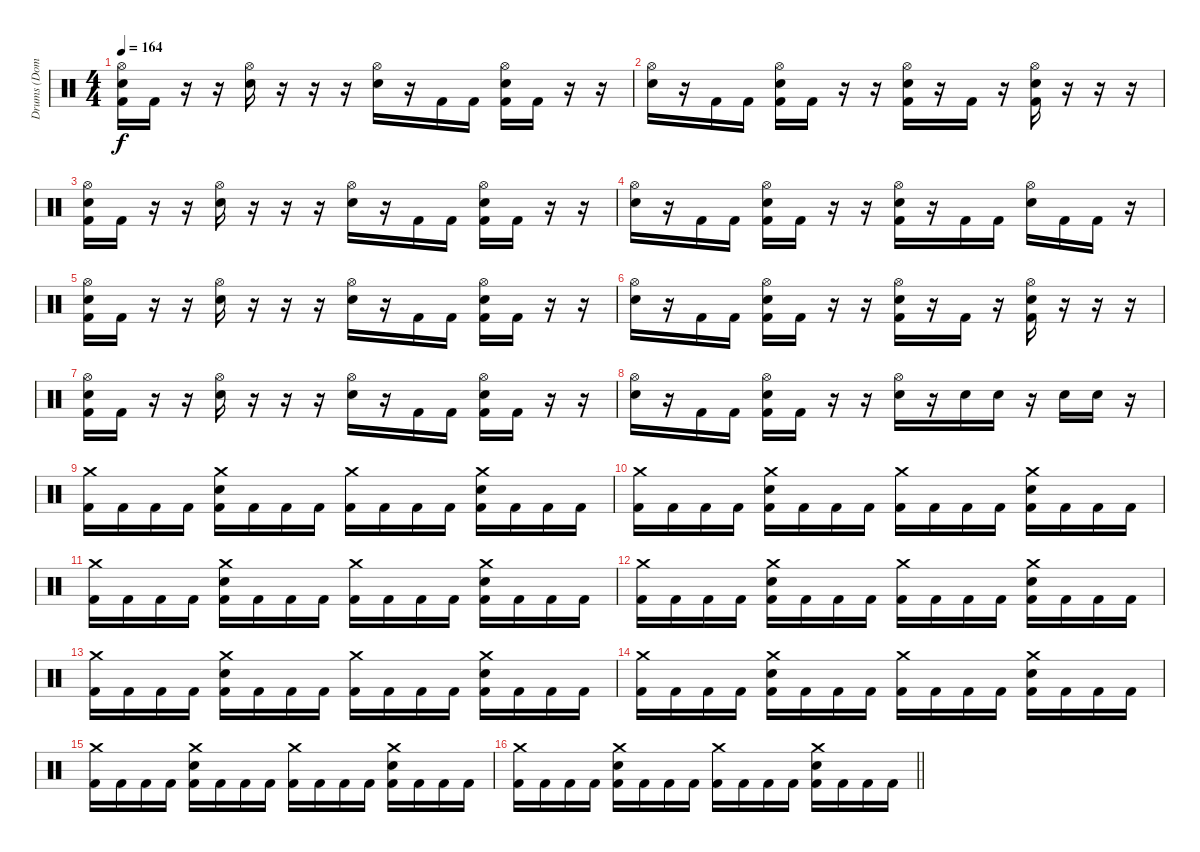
\track ("Drums (Dominik)" "Drums (Dom") {instrument percussion}
\staff {score}
\articulation defaults
\ts (4 4)
\tempo 164
\clef neutral
\ks c
("Hi-Hat (open)" "Electric Snare (hit)" "Kick (hit) 2").16{dy f} "Kick (hit) 2".16 r.16 r.16 ("Hi-Hat (open)" "Electric Snare (hit)").16 r.16 r.16 r.16 ("Hi-Hat (open)" "Electric Snare (hit)").16 r.16 "Kick (hit) 2".16 "Kick (hit) 2".16 ("Hi-Hat (open)" "Electric Snare (hit)" "Kick (hit) 2").16 "Kick (hit) 2".16 r.16 r.16 |
("Hi-Hat (open)" "Electric Snare (hit)").16 r.16 "Kick (hit) 2".16 "Kick (hit) 2".16 ("Hi-Hat (open)" "Electric Snare (hit)" "Kick (hit) 2").16 "Kick (hit) 2".16 r.16 r.16 ("Hi-Hat (open)" "Electric Snare (hit)" "Kick (hit) 2").16 r.16 "Kick (hit) 2".16 r.16 ("Hi-Hat (open)" "Electric Snare (hit)" "Kick (hit) 2").16 r.16 r.16 r.16 |
("Hi-Hat (open)" "Electric Snare (hit)" "Kick (hit) 2").16 "Kick (hit) 2".16 r.16 r.16 ("Hi-Hat (open)" "Electric Snare (hit)").16 r.16 r.16 r.16 ("Hi-Hat (open)" "Electric Snare (hit)").16 r.16 "Kick (hit) 2".16 "Kick (hit) 2".16 ("Hi-Hat (open)" "Electric Snare (hit)" "Kick (hit) 2").16 "Kick (hit) 2".16 r.16 r.16 |
("Hi-Hat (open)" "Electric Snare (hit)").16 r.16 "Kick (hit) 2".16 "Kick (hit) 2".16 ("Hi-Hat (open)" "Electric Snare (hit)" "Kick (hit) 2").16 "Kick (hit) 2".16 r.16 r.16 ("Hi-Hat (open)" "Electric Snare (hit)" "Kick (hit) 2").16 r.16 "Kick (hit) 2".16 "Kick (hit) 2".16 ("Hi-Hat (open)" "Electric Snare (hit)").16 "Kick (hit) 2".16 "Kick (hit) 2".16 r.16 |
("Hi-Hat (open)" "Electric Snare (hit)" "Kick (hit) 2").16 "Kick (hit) 2".16 r.16 r.16 ("Hi-Hat (open)" "Electric Snare (hit)").16 r.16 r.16 r.16 ("Hi-Hat (open)" "Electric Snare (hit)").16 r.16 "Kick (hit) 2".16 "Kick (hit) 2".16 ("Hi-Hat (open)" "Electric Snare (hit)" "Kick (hit) 2").16 "Kick (hit) 2".16 r.16 r.16 |
("Hi-Hat (open)" "Electric Snare (hit)").16 r.16 "Kick (hit) 2".16 "Kick (hit) 2".16 ("Hi-Hat (open)" "Electric Snare (hit)" "Kick (hit) 2").16 "Kick (hit) 2".16 r.16 r.16 ("Hi-Hat (open)" "Electric Snare (hit)" "Kick (hit) 2").16 r.16 "Kick (hit) 2".16 r.16 ("Hi-Hat (open)" "Electric Snare (hit)" "Kick (hit) 2").16 r.16 r.16 r.16 |
("Hi-Hat (open)" "Electric Snare (hit)" "Kick (hit) 2").16 "Kick (hit) 2".16 r.16 r.16 ("Hi-Hat (open)" "Electric Snare (hit)").16 r.16 r.16 r.16 ("Hi-Hat (open)" "Electric Snare (hit)").16 r.16 "Kick (hit) 2".16 "Kick (hit) 2".16 ("Hi-Hat (open)" "Electric Snare (hit)" "Kick (hit) 2").16 "Kick (hit) 2".16 r.16 r.16 |
("Hi-Hat (open)" "Electric Snare (hit)").16 r.16 "Kick (hit) 2".16 "Kick (hit) 2".16 ("Hi-Hat (open)" "Electric Snare (hit)" "Kick (hit) 2").16 "Kick (hit) 2".16 r.16 r.16 ("Hi-Hat (open)" "Electric Snare (hit)").16 r.16 "Electric Snare (hit)".16 "Electric Snare (hit)".16 r.16 "Electric Snare (hit)".16 "Electric Snare (hit)".16 r.16 |
("Crash medium (hit)" "Kick (hit) 2").16 "Kick (hit) 2".16 "Kick (hit) 2".16 "Kick (hit) 2".16 ("Crash medium (hit)" "Electric Snare (hit)" "Kick (hit) 2").16 "Kick (hit) 2".16 "Kick (hit) 2".16 "Kick (hit) 2".16 ("Crash medium (hit)" "Kick (hit) 2").16 "Kick (hit) 2".16 "Kick (hit) 2".16 "Kick (hit) 2".16 ("Crash medium (hit)" "Electric Snare (hit)" "Kick (hit) 2").16 "Kick (hit) 2".16 "Kick (hit) 2".16 "Kick (hit) 2".16 |
("Crash medium (hit)" "Kick (hit) 2").16 "Kick (hit) 2".16 "Kick (hit) 2".16 "Kick (hit) 2".16 ("Crash medium (hit)" "Electric Snare (hit)" "Kick (hit) 2").16 "Kick (hit) 2".16 "Kick (hit) 2".16 "Kick (hit) 2".16 ("Crash medium (hit)" "Kick (hit) 2").16 "Kick (hit) 2".16 "Kick (hit) 2".16 "Kick (hit) 2".16 ("Crash medium (hit)" "Electric Snare (hit)" "Kick (hit) 2").16 "Kick (hit) 2".16 "Kick (hit) 2".16 "Kick (hit) 2".16 |
("Crash medium (hit)" "Kick (hit) 2").16 "Kick (hit) 2".16 "Kick (hit) 2".16 "Kick (hit) 2".16 ("Crash medium (hit)" "Electric Snare (hit)" "Kick (hit) 2").16 "Kick (hit) 2".16 "Kick (hit) 2".16 "Kick (hit) 2".16 ("Crash medium (hit)" "Kick (hit) 2").16 "Kick (hit) 2".16 "Kick (hit) 2".16 "Kick (hit) 2".16 ("Crash medium (hit)" "Electric Snare (hit)" "Kick (hit) 2").16 "Kick (hit) 2".16 "Kick (hit) 2".16 "Kick (hit) 2".16 |
("Crash medium (hit)" "Kick (hit) 2").16 "Kick (hit) 2".16 "Kick (hit) 2".16 "Kick (hit) 2".16 ("Crash medium (hit)" "Electric Snare (hit)" "Kick (hit) 2").16 "Kick (hit) 2".16 "Kick (hit) 2".16 "Kick (hit) 2".16 ("Crash medium (hit)" "Kick (hit) 2").16 "Kick (hit) 2".16 "Kick (hit) 2".16 "Kick (hit) 2".16 ("Crash medium (hit)" "Electric Snare (hit)" "Kick (hit) 2").16 "Kick (hit) 2".16 "Kick (hit) 2".16 "Kick (hit) 2".16 |
("Crash medium (hit)" "Kick (hit) 2").16 "Kick (hit) 2".16 "Kick (hit) 2".16 "Kick (hit) 2".16 ("Crash medium (hit)" "Electric Snare (hit)" "Kick (hit) 2").16 "Kick (hit) 2".16 "Kick (hit) 2".16 "Kick (hit) 2".16 ("Crash medium (hit)" "Kick (hit) 2").16 "Kick (hit) 2".16 "Kick (hit) 2".16 "Kick (hit) 2".16 ("Crash medium (hit)" "Electric Snare (hit)" "Kick (hit) 2").16 "Kick (hit) 2".16 "Kick (hit) 2".16 "Kick (hit) 2".16 |
("Crash medium (hit)" "Kick (hit) 2").16 "Kick (hit) 2".16 "Kick (hit) 2".16 "Kick (hit) 2".16 ("Crash medium (hit)" "Electric Snare (hit)" "Kick (hit) 2").16 "Kick (hit) 2".16 "Kick (hit) 2".16 "Kick (hit) 2".16 ("Crash medium (hit)" "Kick (hit) 2").16 "Kick (hit) 2".16 "Kick (hit) 2".16 "Kick (hit) 2".16 ("Crash medium (hit)" "Electric Snare (hit)" "Kick (hit) 2").16 "Kick (hit) 2".16 "Kick (hit) 2".16 "Kick (hit) 2".16 |
("Crash medium (hit)" "Kick (hit) 2").16 "Kick (hit) 2".16 "Kick (hit) 2".16 "Kick (hit) 2".16 ("Crash medium (hit)" "Electric Snare (hit)" "Kick (hit) 2").16 "Kick (hit) 2".16 "Kick (hit) 2".16 "Kick (hit) 2".16 ("Crash medium (hit)" "Kick (hit) 2").16 "Kick (hit) 2".16 "Kick (hit) 2".16 "Kick (hit) 2".16 ("Crash medium (hit)" "Electric Snare (hit)" "Kick (hit) 2").16 "Kick (hit) 2".16 "Kick (hit) 2".16 "Kick (hit) 2".16 |
\barLineRight lightlight
("Crash medium (hit)" "Kick (hit) 2").16 "Kick (hit) 2".16 "Kick (hit) 2".16 "Kick (hit) 2".16 ("Crash medium (hit)" "Electric Snare (hit)" "Kick (hit) 2").16 "Kick (hit) 2".16 "Kick (hit) 2".16 "Kick (hit) 2".16 ("Crash medium (hit)" "Kick (hit) 2").16 "Kick (hit) 2".16 "Kick (hit) 2".16 "Kick (hit) 2".16 ("Crash medium (hit)" "Electric Snare (hit)" "Kick (hit) 2").16 "Kick (hit) 2".16 "Kick (hit) 2".16 "Kick (hit) 2".16
